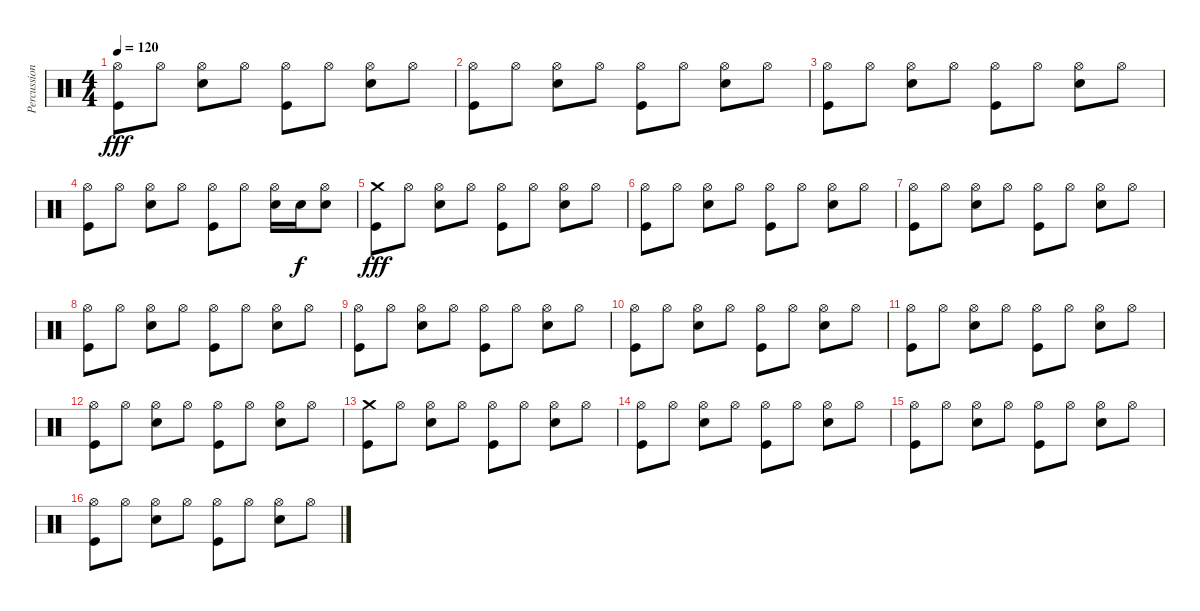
\track ("Percussions" "Percussion") {instrument percussion}
\staff {score}
\articulation defaults
\ts (4 4)
\tempo 120
\clef neutral
\ks c
("Hi-Hat (open)" "Kick (hit)").8{dy fff} "Hi-Hat (open)".8 ("Hi-Hat (open)" "Snare (hit) 2").8 "Hi-Hat (open)".8 ("Hi-Hat (open)" "Kick (hit)").8 "Hi-Hat (open)".8 ("Hi-Hat (open)" "Snare (hit) 2").8 "Hi-Hat (open)".8 |
("Hi-Hat (open)" "Kick (hit)").8 "Hi-Hat (open)".8 ("Hi-Hat (open)" "Snare (hit) 2").8 "Hi-Hat (open)".8 ("Hi-Hat (open)" "Kick (hit)").8 "Hi-Hat (open)".8 ("Hi-Hat (open)" "Snare (hit) 2").8 "Hi-Hat (open)".8 |
("Hi-Hat (open)" "Kick (hit)").8 "Hi-Hat (open)".8 ("Hi-Hat (open)" "Snare (hit) 2").8 "Hi-Hat (open)".8 ("Hi-Hat (open)" "Kick (hit)").8 "Hi-Hat (open)".8 ("Hi-Hat (open)" "Snare (hit) 2").8 "Hi-Hat (open)".8 |
("Hi-Hat (open)" "Kick (hit)").8 "Hi-Hat (open)".8 ("Hi-Hat (open)" "Snare (hit) 2").8 "Hi-Hat (open)".8 ("Hi-Hat (open)" "Kick (hit)").8 "Hi-Hat (open)".8 ("Hi-Hat (open)" "Snare (hit) 2").16 "Snare (hit) 2".16{dy f} ("Hi-Hat (open)" "Snare (hit) 2").8 |
("Crash medium (hit)" "Kick (hit)").8{dy fff} "Hi-Hat (open)".8 ("Hi-Hat (open)" "Snare (hit) 2").8 "Hi-Hat (open)".8 ("Hi-Hat (open)" "Kick (hit)").8 "Hi-Hat (open)".8 ("Hi-Hat (open)" "Snare (hit) 2").8 "Hi-Hat (open)".8 |
("Hi-Hat (open)" "Kick (hit)").8 "Hi-Hat (open)".8 ("Hi-Hat (open)" "Snare (hit) 2").8 "Hi-Hat (open)".8 ("Hi-Hat (open)" "Kick (hit)").8 "Hi-Hat (open)".8 ("Hi-Hat (open)" "Snare (hit) 2").8 "Hi-Hat (open)".8 |
("Hi-Hat (open)" "Kick (hit)").8 "Hi-Hat (open)".8 ("Hi-Hat (open)" "Snare (hit) 2").8 "Hi-Hat (open)".8 ("Hi-Hat (open)" "Kick (hit)").8 "Hi-Hat (open)".8 ("Hi-Hat (open)" "Snare (hit) 2").8 "Hi-Hat (open)".8 |
("Hi-Hat (open)" "Kick (hit)").8 "Hi-Hat (open)".8 ("Hi-Hat (open)" "Snare (hit) 2").8 "Hi-Hat (open)".8 ("Hi-Hat (open)" "Kick (hit)").8 "Hi-Hat (open)".8 ("Hi-Hat (open)" "Snare (hit) 2").8 "Hi-Hat (open)".8 |
("Hi-Hat (open)" "Kick (hit)").8 "Hi-Hat (open)".8 ("Hi-Hat (open)" "Snare (hit) 2").8 "Hi-Hat (open)".8 ("Hi-Hat (open)" "Kick (hit)").8 "Hi-Hat (open)".8 ("Hi-Hat (open)" "Snare (hit) 2").8 "Hi-Hat (open)".8 |
("Hi-Hat (open)" "Kick (hit)").8 "Hi-Hat (open)".8 ("Hi-Hat (open)" "Snare (hit) 2").8 "Hi-Hat (open)".8 ("Hi-Hat (open)" "Kick (hit)").8 "Hi-Hat (open)".8 ("Hi-Hat (open)" "Snare (hit) 2").8 "Hi-Hat (open)".8 |
("Hi-Hat (open)" "Kick (hit)").8 "Hi-Hat (open)".8 ("Hi-Hat (open)" "Snare (hit) 2").8 "Hi-Hat (open)".8 ("Hi-Hat (open)" "Kick (hit)").8 "Hi-Hat (open)".8 ("Hi-Hat (open)" "Snare (hit) 2").8 "Hi-Hat (open)".8 |
("Hi-Hat (open)" "Kick (hit)").8 "Hi-Hat (open)".8 ("Hi-Hat (open)" "Snare (hit) 2").8 "Hi-Hat (open)".8 ("Hi-Hat (open)" "Kick (hit)").8 "Hi-Hat (open)".8 ("Hi-Hat (open)" "Snare (hit) 2").8 "Hi-Hat (open)".8 |
("Crash medium (hit)" "Kick (hit)").8 "Hi-Hat (open)".8 ("Hi-Hat (open)" "Snare (hit) 2").8 "Hi-Hat (open)".8 ("Hi-Hat (open)" "Kick (hit)").8 "Hi-Hat (open)".8 ("Hi-Hat (open)" "Snare (hit) 2").8 "Hi-Hat (open)".8 |
("Hi-Hat (open)" "Kick (hit)").8 "Hi-Hat (open)".8 ("Hi-Hat (open)" "Snare (hit) 2").8 "Hi-Hat (open)".8 ("Hi-Hat (open)" "Kick (hit)").8 "Hi-Hat (open)".8 ("Hi-Hat (open)" "Snare (hit) 2").8 "Hi-Hat (open)".8 |
("Hi-Hat (open)" "Kick (hit)").8 "Hi-Hat (open)".8 ("Hi-Hat (open)" "Snare (hit) 2").8 "Hi-Hat (open)".8 ("Hi-Hat (open)" "Kick (hit)").8 "Hi-Hat (open)".8 ("Hi-Hat (open)" "Snare (hit) 2").8 "Hi-Hat (open)".8 |
("Hi-Hat (open)" "Kick (hit)").8 "Hi-Hat (open)".8 ("Hi-Hat (open)" "Snare (hit) 2").8 "Hi-Hat (open)".8 ("Hi-Hat (open)" "Kick (hit)").8 "Hi-Hat (open)".8 ("Hi-Hat (open)" "Snare (hit) 2").8 "Hi-Hat (open)".8
